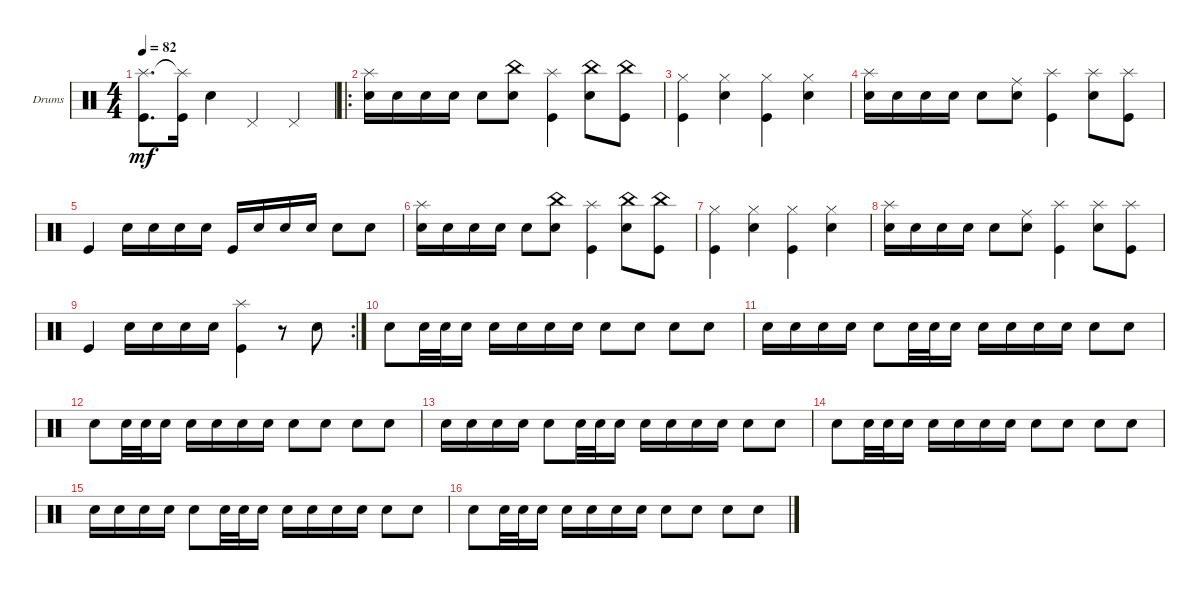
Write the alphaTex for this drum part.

\bracketExtendMode groupsimilarinstruments
\firstSystemTrackNameOrientation horizontal
\otherSystemsTrackNameOrientation horizontal
\track ("Drumkit" "Drums") {multiBarRest instrument percussion}
\staff {score}
\articulation defaults
\ts (4 4)
\tempo 82
\clef neutral
\ks c
("Kick (hit)" "Splash (hit)").8{d dy mf} ("Kick (hit)" "Splash (hit)"{t}).16 "Snare (hit) 2".4 "Pedal Hi-Hat (hit)".4 "Pedal Hi-Hat (hit)".4 |
\ro
("Snare (hit) 2" "Splash (hit)").16 "Snare (hit) 2".16 "Snare (hit) 2".16 "Snare (hit) 2".16 "Snare (hit) 2".8 ("Snare (hit) 2" "China (hit)").8 ("Splash (hit)" "Kick (hit)").4 ("Snare (hit) 2" "China (hit)").8 ("Kick (hit)" "China (hit)").8 |
("Kick (hit)" "Hi-Hat (closed)").4 ("Snare (hit) 2" "Hi-Hat (closed)").4 ("Kick (hit)" "Hi-Hat (closed)").4 ("Snare (hit) 2" "Hi-Hat (closed)").4 |
("Snare (hit) 2" "Splash (hit)").16 "Snare (hit) 2".16 "Snare (hit) 2".16 "Snare (hit) 2".16 "Snare (hit) 2".8 ("Snare (hit) 2" "Ride (middle)").8 ("Splash (hit)" "Kick (hit)").4 ("Snare (hit) 2" "Splash (hit)").8 ("Kick (hit)" "Splash (hit)").8 |
"Kick (hit)".4 "Snare (hit) 2".16 "Snare (hit) 2".16 "Snare (hit) 2".16 "Snare (hit) 2".16 "Kick (hit)".16 "Snare (hit) 2".16 "Snare (hit) 2".16 "Snare (hit) 2".16 "Snare (hit) 2".8 "Snare (hit) 2".8 |
("Snare (hit) 2" "Splash (hit)").16 "Snare (hit) 2".16 "Snare (hit) 2".16 "Snare (hit) 2".16 "Snare (hit) 2".8 ("Snare (hit) 2" "China (hit)").8 ("Splash (hit)" "Kick (hit)").4 ("Snare (hit) 2" "China (hit)").8 ("Kick (hit)" "China (hit)").8 |
("Kick (hit)" "Hi-Hat (closed)").4 ("Snare (hit) 2" "Hi-Hat (closed)").4 ("Kick (hit)" "Hi-Hat (closed)").4 ("Snare (hit) 2" "Hi-Hat (closed)").4 |
("Snare (hit) 2" "Splash (hit)").16 "Snare (hit) 2".16 "Snare (hit) 2".16 "Snare (hit) 2".16 "Snare (hit) 2".8 ("Snare (hit) 2" "Ride (middle)").8 ("Splash (hit)" "Kick (hit)").4 ("Snare (hit) 2" "Splash (hit)").8 ("Kick (hit)" "Splash (hit)").8 |
\rc 2 "Kick (hit)".4 "Snare (hit) 2".16 "Snare (hit) 2".16 "Snare (hit) 2".16 "Snare (hit) 2".16
("Kick (hit)" "Splash (hit)").4 r.8 "Snare (hit) 2".8 |
"Snare (hit) 2".8 "Snare (hit) 2".32 "Snare (hit) 2".32 "Snare (hit) 2".16 "Snare (hit) 2".16 "Snare (hit) 2".16 "Snare (hit) 2".16 "Snare (hit) 2".16 "Snare (hit) 2".8 "Snare (hit) 2".8 "Snare (hit) 2".8 "Snare (hit) 2".8 |
"Snare (hit) 2".16 "Snare (hit) 2".16 "Snare (hit) 2".16 "Snare (hit) 2".16 "Snare (hit) 2".8 "Snare (hit) 2".32 "Snare (hit) 2".32 "Snare (hit) 2".16 "Snare (hit) 2".16 "Snare (hit) 2".16 "Snare (hit) 2".16 "Snare (hit) 2".16 "Snare (hit) 2".8 "Snare (hit) 2".8 |
"Snare (hit) 2".8 "Snare (hit) 2".32 "Snare (hit) 2".32 "Snare (hit) 2".16 "Snare (hit) 2".16 "Snare (hit) 2".16 "Snare (hit) 2".16 "Snare (hit) 2".16 "Snare (hit) 2".8 "Snare (hit) 2".8 "Snare (hit) 2".8 "Snare (hit) 2".8 |
"Snare (hit) 2".16 "Snare (hit) 2".16 "Snare (hit) 2".16 "Snare (hit) 2".16 "Snare (hit) 2".8 "Snare (hit) 2".32 "Snare (hit) 2".32 "Snare (hit) 2".16 "Snare (hit) 2".16 "Snare (hit) 2".16 "Snare (hit) 2".16 "Snare (hit) 2".16 "Snare (hit) 2".8 "Snare (hit) 2".8 |
"Snare (hit) 2".8 "Snare (hit) 2".32 "Snare (hit) 2".32 "Snare (hit) 2".16 "Snare (hit) 2".16 "Snare (hit) 2".16 "Snare (hit) 2".16 "Snare (hit) 2".16 "Snare (hit) 2".8 "Snare (hit) 2".8 "Snare (hit) 2".8 "Snare (hit) 2".8 |
"Snare (hit) 2".16 "Snare (hit) 2".16 "Snare (hit) 2".16 "Snare (hit) 2".16 "Snare (hit) 2".8 "Snare (hit) 2".32 "Snare (hit) 2".32 "Snare (hit) 2".16 "Snare (hit) 2".16 "Snare (hit) 2".16 "Snare (hit) 2".16 "Snare (hit) 2".16 "Snare (hit) 2".8 "Snare (hit) 2".8 |
"Snare (hit) 2".8 "Snare (hit) 2".32 "Snare (hit) 2".32 "Snare (hit) 2".16 "Snare (hit) 2".16 "Snare (hit) 2".16 "Snare (hit) 2".16 "Snare (hit) 2".16 "Snare (hit) 2".8 "Snare (hit) 2".8 "Snare (hit) 2".8 "Snare (hit) 2".8
